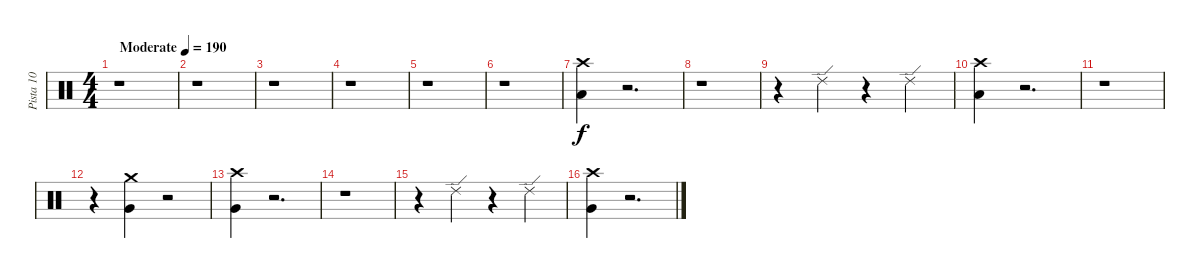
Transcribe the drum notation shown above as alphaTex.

\track ("Pista 10" "Pista 10") {instrument percussion}
\staff {score}
\articulation defaults
\ts (4 4)
\tempo (190 "Moderate")
\clef neutral
\ks c
r.1{dy f} |
r.1 |
r.1 |
r.1 |
r.1 |
r.1 |
("Crash high (hit)" "Low Floor Tom (hit)").4{balance 8} r.2{d} |
r.1 |
r.4 "Ride (edge) 2".4 r.4 "Ride (edge) 2".4 |
("Low Floor Tom (hit)" "Crash high (hit)").4 r.2{d} |
r.1 |
r.4 ("Very Low Tom (hit)" "Crash medium (hit)").4 r.2 |
("Very Low Tom (hit)" "Crash high (hit)").4 r.2{d} |
r.1 |
r.4 "Ride (edge) 2".4 r.4 "Ride (edge) 2".4 |
("Crash high (hit)" "Very Low Tom (hit)").4 r.2{d}
